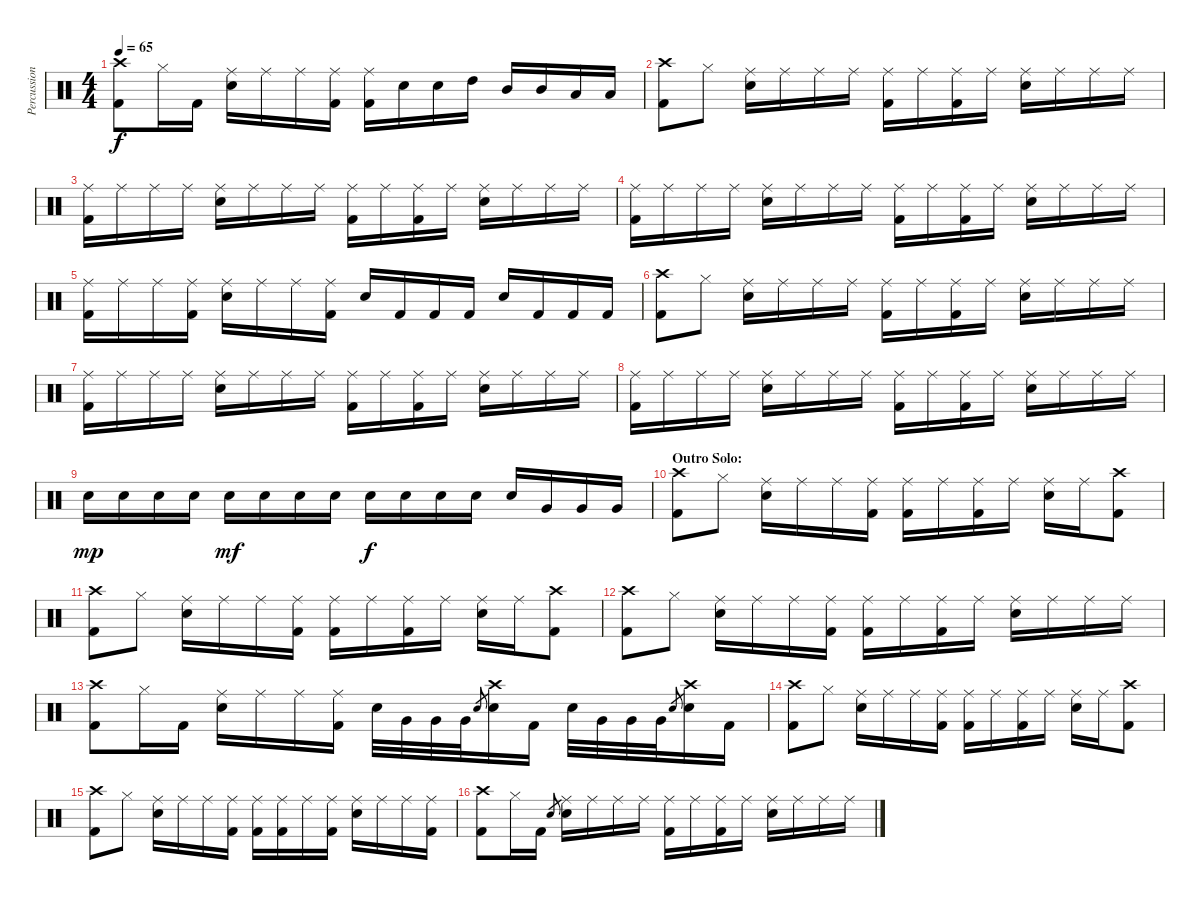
\track ("Percussion" "Percussion") {instrument percussion}
\staff {score}
\articulation defaults
\ts (4 4)
\tempo 65
\clef neutral
\ks c
("Crash high (hit)" "Kick (hit) 2").8{dy f} "Hi-Hat (closed)".16 "Kick (hit) 2".16 ("Ride (middle)" "Electric Snare (hit)").16 "Ride (middle)".16 "Ride (middle)".16 ("Ride (middle)" "Kick (hit) 2").16 ("Ride (middle)" "Kick (hit) 2").16 "Electric Snare (hit)".16 "Electric Snare (hit)".16 "High Tom (hit)".16 "Mid Tom (hit)".16 "Mid Tom (hit)".16 "Low Tom (hit)".16 "Low Tom (hit)".16 |
("Crash high (hit)" "Kick (hit) 2").8 "Hi-Hat (closed)".8 ("Ride (middle)" "Electric Snare (hit)").16 "Ride (middle)".16 "Ride (middle)".16 "Ride (middle)".16 ("Ride (middle)" "Kick (hit) 2").16 "Ride (middle)".16 ("Ride (middle)" "Kick (hit) 2").16 "Ride (middle)".16 ("Ride (middle)" "Electric Snare (hit)").16 "Ride (middle)".16 "Ride (middle)".16 "Ride (middle)".16 |
("Ride (middle)" "Kick (hit) 2").16 "Ride (middle)".16 "Ride (middle)".16 "Ride (middle)".16 ("Ride (middle)" "Electric Snare (hit)").16 "Ride (middle)".16 "Ride (middle)".16 "Ride (middle)".16 ("Ride (middle)" "Kick (hit) 2").16 "Ride (middle)".16 ("Ride (middle)" "Kick (hit) 2").16 "Ride (middle)".16 ("Ride (middle)" "Electric Snare (hit)").16 "Ride (middle)".16 "Ride (middle)".16 "Ride (middle)".16 |
("Ride (middle)" "Kick (hit) 2").16 "Ride (middle)".16 "Ride (middle)".16 "Ride (middle)".16 ("Ride (middle)" "Electric Snare (hit)").16 "Ride (middle)".16 "Ride (middle)".16 "Ride (middle)".16 ("Ride (middle)" "Kick (hit) 2").16 "Ride (middle)".16 ("Ride (middle)" "Kick (hit) 2").16 "Ride (middle)".16 ("Ride (middle)" "Electric Snare (hit)").16 "Ride (middle)".16 "Ride (middle)".16 "Ride (middle)".16 |
("Ride (middle)" "Kick (hit) 2").16 "Ride (middle)".16 "Ride (middle)".16 ("Ride (middle)" "Kick (hit) 2").16 ("Ride (middle)" "Electric Snare (hit)").16 "Ride (middle)".16 "Ride (middle)".16 ("Ride (middle)" "Kick (hit) 2").16 "Electric Snare (hit)".16 "Kick (hit) 2".16 "Kick (hit) 2".16 "Kick (hit) 2".16 "Electric Snare (hit)".16 "Kick (hit) 2".16 "Kick (hit) 2".16 "Kick (hit) 2".16 |
("Crash high (hit)" "Kick (hit) 2").8 "Hi-Hat (closed)".8 ("Ride (middle)" "Electric Snare (hit)").16 "Ride (middle)".16 "Ride (middle)".16 "Ride (middle)".16 ("Ride (middle)" "Kick (hit) 2").16 "Ride (middle)".16 ("Ride (middle)" "Kick (hit) 2").16 "Ride (middle)".16 ("Ride (middle)" "Electric Snare (hit)").16 "Ride (middle)".16 "Ride (middle)".16 "Ride (middle)".16 |
("Ride (middle)" "Kick (hit) 2").16 "Ride (middle)".16 "Ride (middle)".16 "Ride (middle)".16 ("Ride (middle)" "Electric Snare (hit)").16 "Ride (middle)".16 "Ride (middle)".16 "Ride (middle)".16 ("Ride (middle)" "Kick (hit) 2").16 "Ride (middle)".16 ("Ride (middle)" "Kick (hit) 2").16 "Ride (middle)".16 ("Ride (middle)" "Electric Snare (hit)").16 "Ride (middle)".16 "Ride (middle)".16 "Ride (middle)".16 |
("Ride (middle)" "Kick (hit) 2").16 "Ride (middle)".16 "Ride (middle)".16 "Ride (middle)".16 ("Ride (middle)" "Electric Snare (hit)").16 "Ride (middle)".16 "Ride (middle)".16 "Ride (middle)".16 ("Ride (middle)" "Kick (hit) 2").16 "Ride (middle)".16 ("Ride (middle)" "Kick (hit) 2").16 "Ride (middle)".16 ("Ride (middle)" "Electric Snare (hit)").16 "Ride (middle)".16 "Ride (middle)".16 "Ride (middle)".16 |
"Electric Snare (hit)".16{dy mp} "Electric Snare (hit)".16 "Electric Snare (hit)".16 "Electric Snare (hit)".16 "Electric Snare (hit)".16{dy mf} "Electric Snare (hit)".16 "Electric Snare (hit)".16 "Electric Snare (hit)".16 "Electric Snare (hit)".16{dy f} "Electric Snare (hit)".16 "Electric Snare (hit)".16 "Electric Snare (hit)".16 "Electric Snare (hit)".16 "Very Low Tom (hit)".16 "Very Low Tom (hit)".16 "Very Low Tom (hit)".16 |
\section ("" "Outro Solo:")
("Crash high (hit)" "Kick (hit) 2").8 "Hi-Hat (closed)".8 ("Ride (middle)" "Electric Snare (hit)").16 "Ride (middle)".16 "Ride (middle)".16 ("Ride (middle)" "Kick (hit) 2").16 ("Ride (middle)" "Kick (hit) 2").16 "Ride (middle)".16 ("Ride (middle)" "Kick (hit) 2").16 "Ride (middle)".16 ("Ride (middle)" "Electric Snare (hit)").16 "Ride (middle)".16 ("Crash high (hit)" "Kick (hit) 2").8 |
("Crash high (hit)" "Kick (hit) 2").8 "Hi-Hat (closed)".8 ("Ride (middle)" "Electric Snare (hit)").16 "Ride (middle)".16 "Ride (middle)".16 ("Ride (middle)" "Kick (hit) 2").16 ("Ride (middle)" "Kick (hit) 2").16 "Ride (middle)".16 ("Ride (middle)" "Kick (hit) 2").16 "Ride (middle)".16 ("Ride (middle)" "Electric Snare (hit)").16 "Ride (middle)".16 ("Crash high (hit)" "Kick (hit) 2").8 |
("Crash high (hit)" "Kick (hit) 2").8 "Hi-Hat (closed)".8 ("Ride (middle)" "Electric Snare (hit)").16 "Ride (middle)".16 "Ride (middle)".16 ("Ride (middle)" "Kick (hit) 2").16 ("Ride (middle)" "Kick (hit) 2").16 "Ride (middle)".16 ("Ride (middle)" "Kick (hit) 2").16 "Ride (middle)".16 ("Ride (middle)" "Electric Snare (hit)").16 "Ride (middle)".16 "Ride (middle)".16 "Ride (middle)".16 |
("Crash high (hit)" "Kick (hit) 2").8 "Hi-Hat (closed)".16 "Kick (hit) 2".16 ("Ride (middle)" "Electric Snare (hit)").16 "Ride (middle)".16 "Ride (middle)".16 ("Ride (middle)" "Kick (hit) 2").16 "Electric Snare (hit)".32 "Very Low Tom (hit)".32 "Very Low Tom (hit)".32 "Very Low Tom (hit)".32 "Electric Snare (hit)".8{gr} ("Crash high (hit)" "Electric Snare (hit)").16 "Kick (hit) 2".16 "Electric Snare (hit)".32 "Very Low Tom (hit)".32 "Very Low Tom (hit)".32 "Very Low Tom (hit)".32 "Electric Snare (hit)".8{gr} ("Crash high (hit)" "Electric Snare (hit)").16 "Kick (hit) 2".16 |
("Crash high (hit)" "Kick (hit) 2").8 "Hi-Hat (closed)".8 ("Ride (middle)" "Electric Snare (hit)").16 "Ride (middle)".16 "Ride (middle)".16 ("Ride (middle)" "Kick (hit) 2").16 ("Ride (middle)" "Kick (hit) 2").16 "Ride (middle)".16 ("Ride (middle)" "Kick (hit) 2").16 "Ride (middle)".16 ("Ride (middle)" "Electric Snare (hit)").16 "Ride (middle)".16 ("Crash high (hit)" "Kick (hit) 2").8 |
("Crash high (hit)" "Kick (hit) 2").8 "Hi-Hat (closed)".8 ("Ride (middle)" "Electric Snare (hit)").16 "Ride (middle)".16 "Ride (middle)".16 ("Ride (middle)" "Kick (hit) 2").16 ("Ride (middle)" "Kick (hit) 2").16 ("Ride (middle)" "Kick (hit) 2").16 "Ride (middle)".16 ("Ride (middle)" "Kick (hit) 2").16 ("Ride (middle)" "Electric Snare (hit)").16 "Ride (middle)".16 "Ride (middle)".16 ("Ride (middle)" "Kick (hit) 2").16 |
("Crash high (hit)" "Kick (hit) 2").8 "Hi-Hat (closed)".16 "Kick (hit) 2".16 "Electric Snare (hit)".8{gr} ("Ride (middle)" "Electric Snare (hit)").16 "Ride (middle)".16 "Ride (middle)".16 "Ride (middle)".16 ("Ride (middle)" "Kick (hit) 2").16 "Ride (middle)".16 ("Ride (middle)" "Kick (hit) 2").16 "Ride (middle)".16 ("Ride (middle)" "Electric Snare (hit)").16 "Ride (middle)".16 "Ride (middle)".16 "Ride (middle)".16
